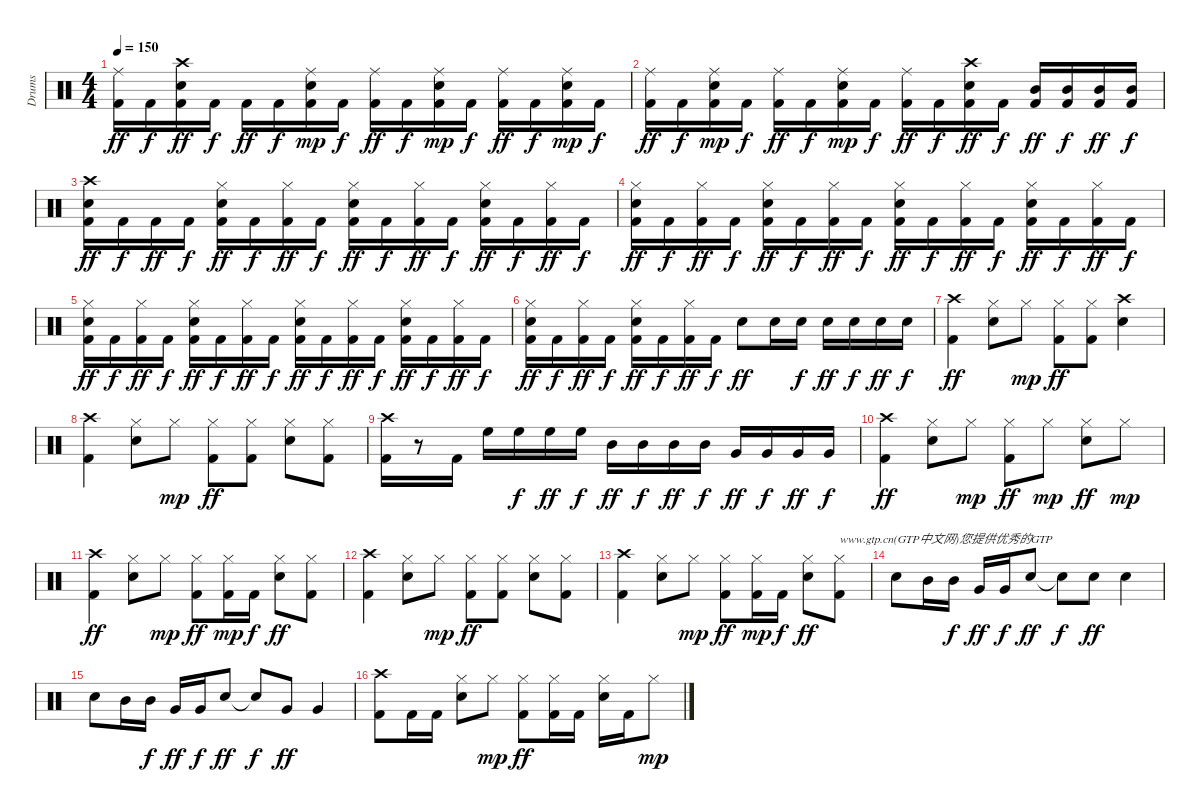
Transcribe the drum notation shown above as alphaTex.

\track ("Drums" "Drums") {instrument percussion}
\staff {score}
\articulation defaults
\ts (4 4)
\tempo 150
\clef neutral
\ks c
("Ride (middle)" "Kick (hit) 2").16{dy ff} "Kick (hit) 2".16{dy f} ("Snare (hit) 2" "Crash high (hit)" "Kick (hit) 2").16{dy ff} "Kick (hit) 2".16{dy f} "Kick (hit) 2".16{dy ff} "Kick (hit) 2".16{dy f} ("Kick (hit) 2" "Snare (hit) 2" "Ride (middle)").16{dy mp} "Kick (hit) 2".16{dy f} ("Ride (middle)" "Kick (hit) 2").16{dy ff} "Kick (hit) 2".16{dy f} ("Kick (hit) 2" "Snare (hit) 2" "Ride (middle)").16{dy mp} "Kick (hit) 2".16{dy f} ("Ride (middle)" "Kick (hit) 2").16{dy ff} "Kick (hit) 2".16{dy f} ("Kick (hit) 2" "Snare (hit) 2" "Ride (middle)").16{dy mp} "Kick (hit) 2".16{dy f} |
("Ride (middle)" "Kick (hit) 2").16{dy ff} "Kick (hit) 2".16{dy f} ("Kick (hit) 2" "Snare (hit) 2" "Ride (middle)").16{dy mp} "Kick (hit) 2".16{dy f} ("Ride (middle)" "Kick (hit) 2").16{dy ff} "Kick (hit) 2".16{dy f} ("Kick (hit) 2" "Snare (hit) 2" "Ride (middle)").16{dy mp} "Kick (hit) 2".16{dy f} ("Ride (middle)" "Kick (hit) 2").16{dy ff} "Kick (hit) 2".16{dy f} ("Kick (hit) 2" "Crash high (hit)" "Snare (hit) 2").16{dy ff} "Kick (hit) 2".16{dy f} ("Mid Tom (hit)" "Kick (hit) 2").16{dy ff} ("Mid Tom (hit)" "Kick (hit) 2").16{dy f} ("Mid Tom (hit)" "Kick (hit) 2").16{dy ff} ("Mid Tom (hit)" "Kick (hit) 2").16{dy f} |
("Crash high (hit)" "Snare (hit) 2" "Kick (hit) 2").16{dy ff} "Kick (hit) 2".16{dy f} "Kick (hit) 2".16{dy ff} "Kick (hit) 2".16{dy f} ("Kick (hit) 2" "Snare (hit) 2" "Hi-Hat (closed)").16{dy ff} "Kick (hit) 2".16{dy f} ("Hi-Hat (closed)" "Kick (hit) 2").16{dy ff} "Kick (hit) 2".16{dy f} ("Kick (hit) 2" "Snare (hit) 2" "Hi-Hat (closed)").16{dy ff} "Kick (hit) 2".16{dy f} ("Hi-Hat (closed)" "Kick (hit) 2").16{dy ff} "Kick (hit) 2".16{dy f} ("Kick (hit) 2" "Snare (hit) 2" "Hi-Hat (closed)").16{dy ff} "Kick (hit) 2".16{dy f} ("Hi-Hat (closed)" "Kick (hit) 2").16{dy ff} "Kick (hit) 2".16{dy f} |
("Kick (hit) 2" "Snare (hit) 2" "Hi-Hat (closed)").16{dy ff} "Kick (hit) 2".16{dy f} ("Hi-Hat (closed)" "Kick (hit) 2").16{dy ff} "Kick (hit) 2".16{dy f} ("Kick (hit) 2" "Snare (hit) 2" "Hi-Hat (closed)").16{dy ff} "Kick (hit) 2".16{dy f} ("Hi-Hat (closed)" "Kick (hit) 2").16{dy ff} "Kick (hit) 2".16{dy f} ("Kick (hit) 2" "Snare (hit) 2" "Hi-Hat (closed)").16{dy ff} "Kick (hit) 2".16{dy f} ("Hi-Hat (closed)" "Kick (hit) 2").16{dy ff} "Kick (hit) 2".16{dy f} ("Kick (hit) 2" "Snare (hit) 2" "Hi-Hat (closed)").16{dy ff} "Kick (hit) 2".16{dy f} ("Hi-Hat (closed)" "Kick (hit) 2").16{dy ff} "Kick (hit) 2".16{dy f} |
("Kick (hit) 2" "Snare (hit) 2" "Hi-Hat (closed)").16{dy ff} "Kick (hit) 2".16{dy f} ("Hi-Hat (closed)" "Kick (hit) 2").16{dy ff} "Kick (hit) 2".16{dy f} ("Kick (hit) 2" "Snare (hit) 2" "Hi-Hat (closed)").16{dy ff} "Kick (hit) 2".16{dy f} ("Hi-Hat (closed)" "Kick (hit) 2").16{dy ff} "Kick (hit) 2".16{dy f} ("Kick (hit) 2" "Snare (hit) 2" "Hi-Hat (closed)").16{dy ff} "Kick (hit) 2".16{dy f} ("Hi-Hat (closed)" "Kick (hit) 2").16{dy ff} "Kick (hit) 2".16{dy f} ("Kick (hit) 2" "Snare (hit) 2" "Hi-Hat (closed)").16{dy ff} "Kick (hit) 2".16{dy f} ("Hi-Hat (closed)" "Kick (hit) 2").16{dy ff} "Kick (hit) 2".16{dy f} |
("Kick (hit) 2" "Snare (hit) 2" "Hi-Hat (closed)").16{dy ff} "Kick (hit) 2".16{dy f} ("Hi-Hat (closed)" "Kick (hit) 2").16{dy ff} "Kick (hit) 2".16{dy f} ("Kick (hit) 2" "Snare (hit) 2" "Hi-Hat (closed)").16{dy ff} "Kick (hit) 2".16{dy f} ("Hi-Hat (closed)" "Kick (hit) 2").16{dy ff} "Kick (hit) 2".16{dy f} "Snare (hit) 2".8{dy ff} "Snare (hit) 2".16 "Snare (hit) 2".16{dy f} "Snare (hit) 2".16{dy ff} "Snare (hit) 2".16{dy f} "Snare (hit) 2".16{dy ff} "Snare (hit) 2".16{dy f} |
("Crash high (hit)" "Kick (hit) 2").4{dy ff} ("Hi-Hat (closed)" "Snare (hit) 2").8 "Hi-Hat (closed)".8{dy mp} ("Hi-Hat (closed)" "Kick (hit) 2").8{dy ff} ("Hi-Hat (closed)" "Kick (hit) 2").8 ("Crash high (hit)" "Snare (hit) 2").4 |
("Crash high (hit)" "Kick (hit) 2").4 ("Hi-Hat (closed)" "Snare (hit) 2").8 "Hi-Hat (closed)".8{dy mp} ("Hi-Hat (closed)" "Kick (hit) 2").8{dy ff} ("Hi-Hat (closed)" "Kick (hit) 2").8 ("Hi-Hat (closed)" "Snare (hit) 2").8 ("Hi-Hat (closed)" "Kick (hit) 2").8 |
("Crash high (hit)" "Kick (hit) 2").16 r.8 "Kick (hit) 2".16 "High Floor Tom (hit)".16 "High Floor Tom (hit)".16{dy f} "High Floor Tom (hit)".16{dy ff} "High Floor Tom (hit)".16{dy f} "Mid Tom (hit)".16{dy ff} "Mid Tom (hit)".16{dy f} "Mid Tom (hit)".16{dy ff} "Mid Tom (hit)".16{dy f} "Very Low Tom (hit)".16{dy ff} "Very Low Tom (hit)".16{dy f} "Very Low Tom (hit)".16{dy ff} "Very Low Tom (hit)".16{dy f} |
("Crash high (hit)" "Kick (hit) 2").4{dy ff} ("Hi-Hat (closed)" "Snare (hit) 2").8 "Hi-Hat (closed)".8{dy mp} ("Kick (hit) 2" "Hi-Hat (closed)").8{dy ff} "Hi-Hat (closed)".8{dy mp} ("Hi-Hat (closed)" "Snare (hit) 2").8{dy ff} "Hi-Hat (closed)".8{dy mp} |
("Crash high (hit)" "Kick (hit) 2").4{dy ff} ("Hi-Hat (closed)" "Snare (hit) 2").8 "Hi-Hat (closed)".8{dy mp} ("Hi-Hat (closed)" "Kick (hit) 2").8{dy ff} ("Kick (hit) 2" "Hi-Hat (closed)").16{dy mp} "Kick (hit) 2".16{dy f} ("Hi-Hat (closed)" "Snare (hit) 2").8{dy ff} ("Hi-Hat (closed)" "Kick (hit) 2").8 |
("Crash high (hit)" "Kick (hit) 2").4 ("Hi-Hat (closed)" "Snare (hit) 2").8 "Hi-Hat (closed)".8{dy mp} ("Hi-Hat (closed)" "Kick (hit) 2").8{dy ff} ("Hi-Hat (closed)" "Kick (hit) 2").8 ("Hi-Hat (closed)" "Snare (hit) 2").8 ("Hi-Hat (closed)" "Kick (hit) 2").8 |
("Crash high (hit)" "Kick (hit) 2").4 ("Hi-Hat (closed)" "Snare (hit) 2").8 "Hi-Hat (closed)".8{dy mp} ("Hi-Hat (closed)" "Kick (hit) 2").8{dy ff} ("Kick (hit) 2" "Hi-Hat (closed)").16{dy mp} "Kick (hit) 2".16{dy f} ("Hi-Hat (closed)" "Snare (hit) 2").8{dy ff} ("Hi-Hat (closed)" "Kick (hit) 2").8{txt "www.gtp.cn(GTP中文网)您提供优秀的GTP"} |
"Snare (hit) 2".8 "Mid Tom (hit)".16 "Mid Tom (hit)".16{dy f} "Very Low Tom (hit)".16{dy ff} "Very Low Tom (hit)".16{dy f} "Snare (hit) 2".8{dy ff} "Snare (hit)"{t}.8{dy f} "Snare (hit) 2".8{dy ff} "Snare (hit) 2".4 |
"Snare (hit) 2".8 "Mid Tom (hit)".16 "Mid Tom (hit)".16{dy f} "Very Low Tom (hit)".16{dy ff} "Very Low Tom (hit)".16{dy f} "Snare (hit) 2".8{dy ff} "Snare (hit)"{t}.8{dy f} "Very Low Tom (hit)".8{dy ff} "Very Low Tom (hit)".4 |
("Crash high (hit)" "Kick (hit) 2").8 "Kick (hit) 2".16 "Kick (hit) 2".16 ("Hi-Hat (closed)" "Snare (hit) 2").8 "Hi-Hat (closed)".8{dy mp} ("Hi-Hat (closed)" "Kick (hit) 2").8{dy ff} ("Hi-Hat (closed)" "Kick (hit) 2").16 "Kick (hit) 2".16 ("Hi-Hat (closed)" "Snare (hit) 2").16 "Kick (hit) 2".16 "Hi-Hat (closed)".8{dy mp}
